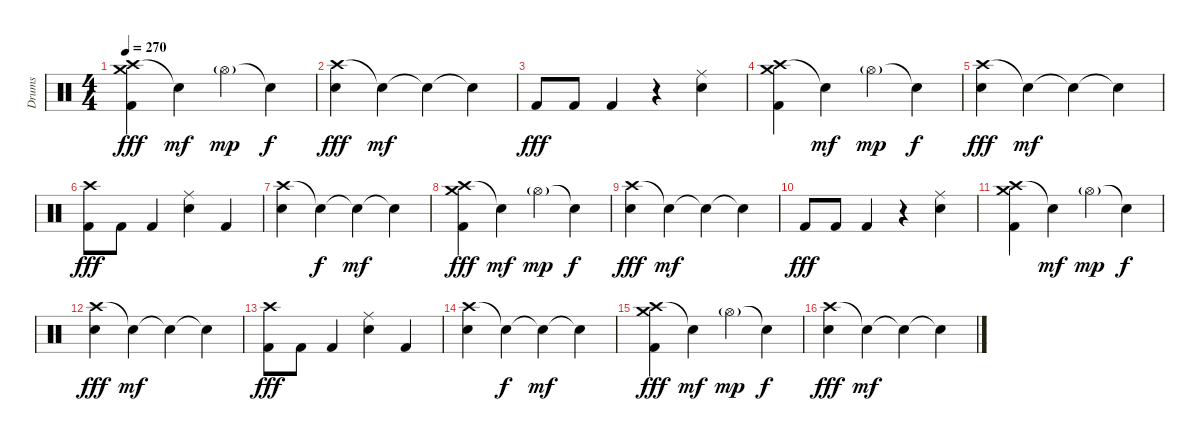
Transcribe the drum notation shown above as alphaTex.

\track ("Drums" "Drums") {instrument percussion}
\staff {score}
\articulation defaults
\ts (4 4)
\tempo 270
\clef neutral
\ks c
("Crash high (hit)" "Crash medium (hit)" "Kick (hit) 2").4{dy fff} "Snare (hit)"{t}.4{dy mf} "Hi-Hat (open)"{g}.4{dy mp} "Snare (hit)"{t}.4{dy f} |
("Crash high (hit)" "Snare (hit) 2").4{dy fff} "Snare (hit)"{t}.4{dy mf} "Snare (hit)"{t}.4 "Snare (hit)"{t}.4 |
"Kick (hit) 2".8{dy fff} "Kick (hit) 2".8 "Kick (hit) 2".4 r.4 ("Ride (middle)" "Snare (hit) 2").4 |
("Crash high (hit)" "Crash medium (hit)" "Kick (hit) 2").4 "Snare (hit)"{t}.4{dy mf} "Hi-Hat (open)"{g}.4{dy mp} "Snare (hit)"{t}.4{dy f} |
("Crash high (hit)" "Snare (hit) 2").4{dy fff} "Snare (hit)"{t}.4{dy mf} "Snare (hit)"{t}.4 "Snare (hit)"{t}.4 |
("Crash high (hit)" "Kick (hit) 2").8{dy fff} "Kick (hit) 2".8 "Kick (hit) 2".4 ("Ride (middle)" "Snare (hit) 2").4 "Kick (hit) 2".4 |
("Crash high (hit)" "Snare (hit) 2").4 "Snare (hit)"{t}.4{dy f} "Snare (hit)"{t}.4{dy mf} "Snare (hit)"{t}.4 |
("Crash high (hit)" "Crash medium (hit)" "Kick (hit) 2").4{dy fff} "Snare (hit)"{t}.4{dy mf} "Hi-Hat (open)"{g}.4{dy mp} "Snare (hit)"{t}.4{dy f} |
("Crash high (hit)" "Snare (hit) 2").4{dy fff} "Snare (hit)"{t}.4{dy mf} "Snare (hit)"{t}.4 "Snare (hit)"{t}.4 |
"Kick (hit) 2".8{dy fff} "Kick (hit) 2".8 "Kick (hit) 2".4 r.4 ("Ride (middle)" "Snare (hit) 2").4 |
("Crash high (hit)" "Crash medium (hit)" "Kick (hit) 2").4 "Snare (hit)"{t}.4{dy mf} "Hi-Hat (open)"{g}.4{dy mp} "Snare (hit)"{t}.4{dy f} |
("Crash high (hit)" "Snare (hit) 2").4{dy fff} "Snare (hit)"{t}.4{dy mf} "Snare (hit)"{t}.4 "Snare (hit)"{t}.4 |
("Crash high (hit)" "Kick (hit) 2").8{dy fff} "Kick (hit) 2".8 "Kick (hit) 2".4 ("Ride (middle)" "Snare (hit) 2").4 "Kick (hit) 2".4 |
("Crash high (hit)" "Snare (hit) 2").4 "Snare (hit)"{t}.4{dy f} "Snare (hit)"{t}.4{dy mf} "Snare (hit)"{t}.4 |
("Crash high (hit)" "Crash medium (hit)" "Kick (hit) 2").4{dy fff} "Snare (hit)"{t}.4{dy mf} "Hi-Hat (open)"{g}.4{dy mp} "Snare (hit)"{t}.4{dy f} |
("Crash high (hit)" "Snare (hit) 2").4{dy fff} "Snare (hit)"{t}.4{dy mf} "Snare (hit)"{t}.4 "Snare (hit)"{t}.4
